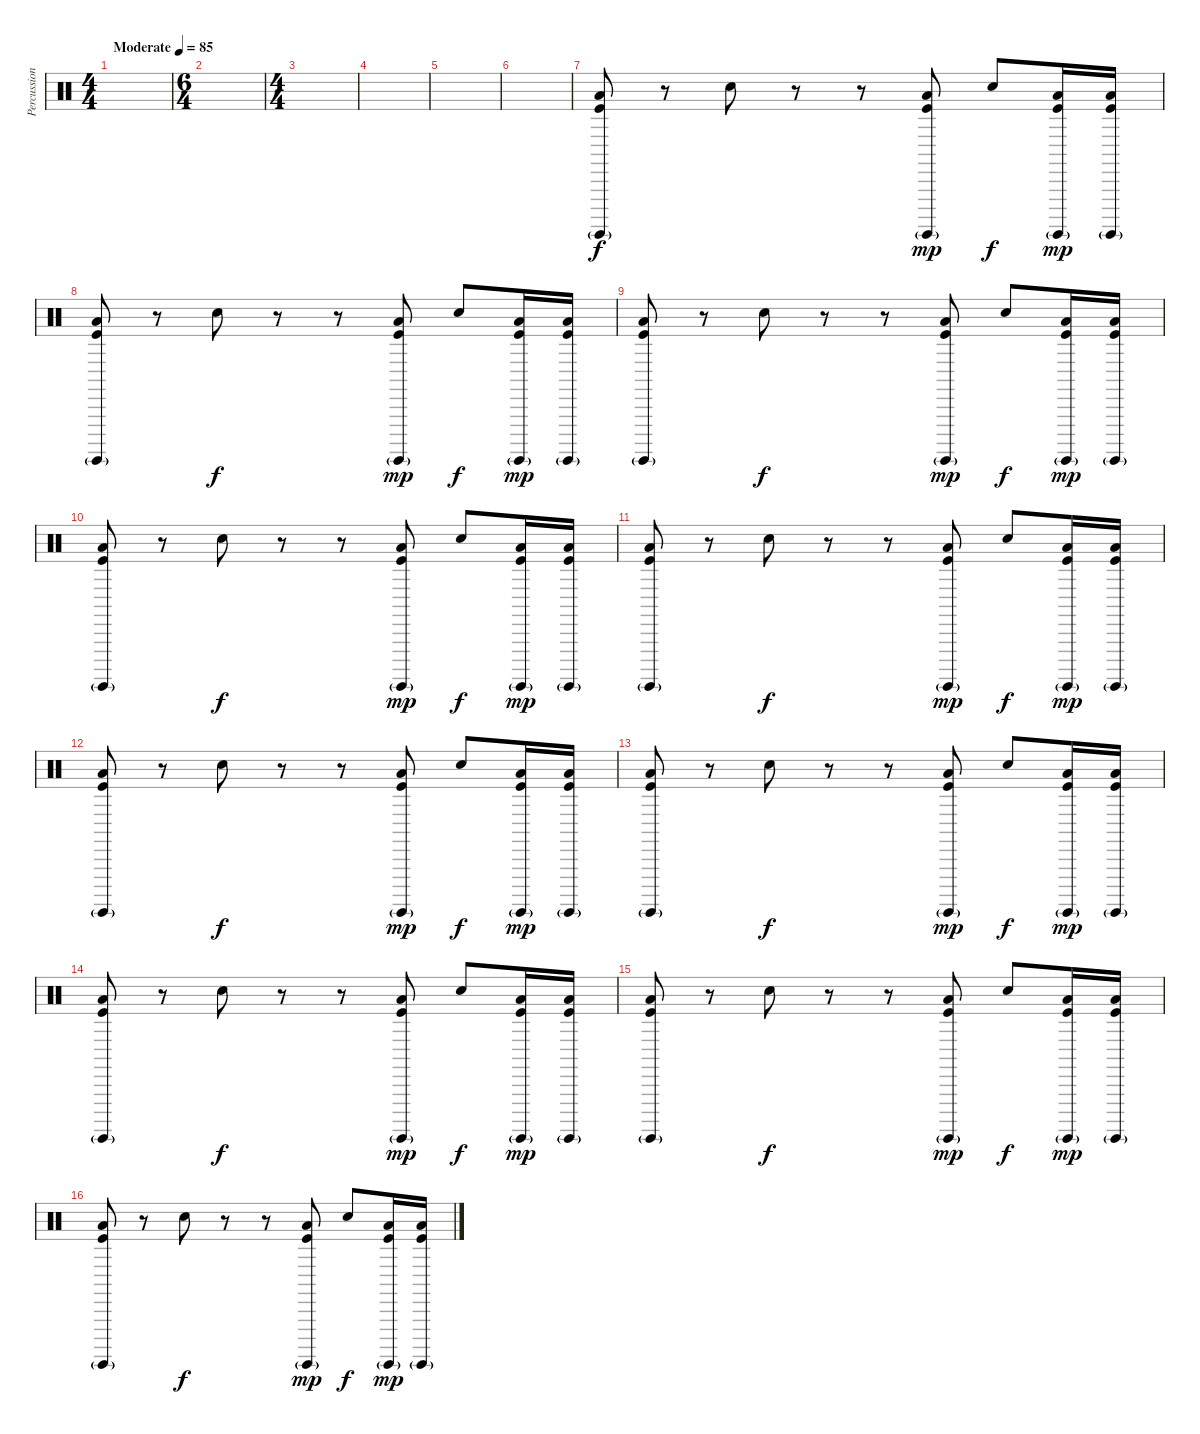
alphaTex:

\track ("Percussion" "Percussion") {instrument percussion}
\staff {score}
\articulation defaults
\ts (4 4)
\tempo (85 "Moderate")
\clef neutral
\ks c
|
\ts (6 4)
|
\ts (4 4)
|
|
|
|
("Low Floor Tom (hit)" "Surdo (hit)"{g} "Kick (hit)").8 r.8 "Snare (hit) 2".8{dy f} r.8 r.8 ("Low Floor Tom (hit)" "Surdo (hit)"{g} "Kick (hit)").8{dy mp} "Snare (hit) 2".8{dy f} ("Surdo (hit)"{g} "Low Floor Tom (hit)" "Kick (hit)").16{dy mp} ("Surdo (hit)"{g} "Low Floor Tom (hit)" "Kick (hit)").16 |
("Low Floor Tom (hit)" "Surdo (hit)"{g} "Kick (hit)").8 r.8 "Snare (hit) 2".8{dy f} r.8 r.8 ("Low Floor Tom (hit)" "Surdo (hit)"{g} "Kick (hit)").8{dy mp} "Snare (hit) 2".8{dy f} ("Surdo (hit)"{g} "Low Floor Tom (hit)" "Kick (hit)").16{dy mp} ("Surdo (hit)"{g} "Low Floor Tom (hit)" "Kick (hit)").16 |
("Low Floor Tom (hit)" "Surdo (hit)"{g} "Kick (hit)").8 r.8 "Snare (hit) 2".8{dy f} r.8 r.8 ("Low Floor Tom (hit)" "Surdo (hit)"{g} "Kick (hit)").8{dy mp} "Snare (hit) 2".8{dy f} ("Surdo (hit)"{g} "Low Floor Tom (hit)" "Kick (hit)").16{dy mp} ("Surdo (hit)"{g} "Low Floor Tom (hit)" "Kick (hit)").16 |
("Low Floor Tom (hit)" "Surdo (hit)"{g} "Kick (hit)").8 r.8 "Snare (hit) 2".8{dy f} r.8 r.8 ("Low Floor Tom (hit)" "Surdo (hit)"{g} "Kick (hit)").8{dy mp} "Snare (hit) 2".8{dy f} ("Surdo (hit)"{g} "Low Floor Tom (hit)" "Kick (hit)").16{dy mp} ("Surdo (hit)"{g} "Low Floor Tom (hit)" "Kick (hit)").16 |
("Low Floor Tom (hit)" "Surdo (hit)"{g} "Kick (hit)").8 r.8 "Snare (hit) 2".8{dy f} r.8 r.8 ("Low Floor Tom (hit)" "Surdo (hit)"{g} "Kick (hit)").8{dy mp} "Snare (hit) 2".8{dy f} ("Surdo (hit)"{g} "Low Floor Tom (hit)" "Kick (hit)").16{dy mp} ("Surdo (hit)"{g} "Low Floor Tom (hit)" "Kick (hit)").16 |
("Low Floor Tom (hit)" "Surdo (hit)"{g} "Kick (hit)").8 r.8 "Snare (hit) 2".8{dy f} r.8 r.8 ("Low Floor Tom (hit)" "Surdo (hit)"{g} "Kick (hit)").8{dy mp} "Snare (hit) 2".8{dy f} ("Surdo (hit)"{g} "Low Floor Tom (hit)" "Kick (hit)").16{dy mp} ("Surdo (hit)"{g} "Low Floor Tom (hit)" "Kick (hit)").16 |
("Low Floor Tom (hit)" "Surdo (hit)"{g} "Kick (hit)").8 r.8 "Snare (hit) 2".8{dy f} r.8 r.8 ("Low Floor Tom (hit)" "Surdo (hit)"{g} "Kick (hit)").8{dy mp} "Snare (hit) 2".8{dy f} ("Surdo (hit)"{g} "Low Floor Tom (hit)" "Kick (hit)").16{dy mp} ("Surdo (hit)"{g} "Low Floor Tom (hit)" "Kick (hit)").16 |
("Low Floor Tom (hit)" "Surdo (hit)"{g} "Kick (hit)").8 r.8 "Snare (hit) 2".8{dy f} r.8 r.8 ("Low Floor Tom (hit)" "Surdo (hit)"{g} "Kick (hit)").8{dy mp} "Snare (hit) 2".8{dy f} ("Surdo (hit)"{g} "Low Floor Tom (hit)" "Kick (hit)").16{dy mp} ("Surdo (hit)"{g} "Low Floor Tom (hit)" "Kick (hit)").16 |
("Low Floor Tom (hit)" "Surdo (hit)"{g} "Kick (hit)").8 r.8 "Snare (hit) 2".8{dy f} r.8 r.8 ("Low Floor Tom (hit)" "Surdo (hit)"{g} "Kick (hit)").8{dy mp} "Snare (hit) 2".8{dy f} ("Surdo (hit)"{g} "Low Floor Tom (hit)" "Kick (hit)").16{dy mp} ("Surdo (hit)"{g} "Low Floor Tom (hit)" "Kick (hit)").16 |
("Low Floor Tom (hit)" "Surdo (hit)"{g} "Kick (hit)").8 r.8 "Snare (hit) 2".8{dy f} r.8 r.8 ("Low Floor Tom (hit)" "Surdo (hit)"{g} "Kick (hit)").8{dy mp} "Snare (hit) 2".8{dy f} ("Surdo (hit)"{g} "Low Floor Tom (hit)" "Kick (hit)").16{dy mp} ("Surdo (hit)"{g} "Low Floor Tom (hit)" "Kick (hit)").16
